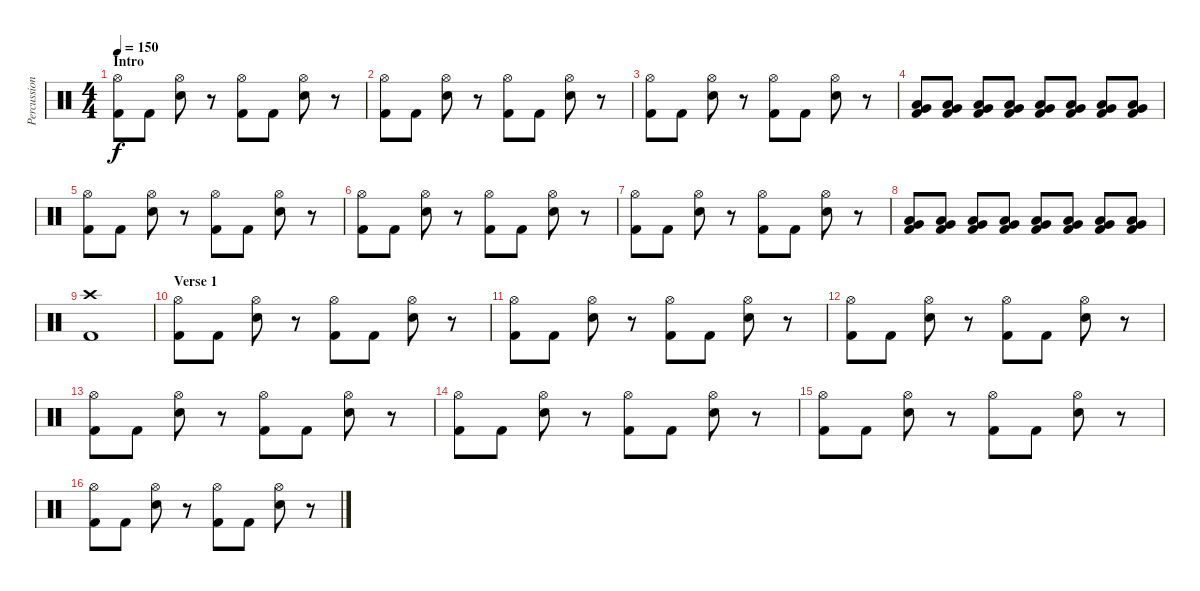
\track ("Percussion" "Percussion") {instrument percussion}
\staff {score}
\articulation defaults
\ts (4 4)
\section ("" "Intro")
\tempo 150
\clef neutral
\ks c
("Hi-Hat (open)" "Kick (hit) 2").8{dy f} "Kick (hit) 2".8 ("Hi-Hat (open)" "Electric Snare (hit)").8 r.8 ("Hi-Hat (open)" "Kick (hit) 2").8 "Kick (hit) 2".8 ("Hi-Hat (open)" "Electric Snare (hit)").8 r.8 |
("Hi-Hat (open)" "Kick (hit) 2").8 "Kick (hit) 2".8 ("Hi-Hat (open)" "Electric Snare (hit)").8 r.8 ("Hi-Hat (open)" "Kick (hit) 2").8 "Kick (hit) 2".8 ("Hi-Hat (open)" "Electric Snare (hit)").8 r.8 |
("Hi-Hat (open)" "Kick (hit) 2").8 "Kick (hit) 2".8 ("Hi-Hat (open)" "Electric Snare (hit)").8 r.8 ("Hi-Hat (open)" "Kick (hit) 2").8 "Kick (hit) 2".8 ("Hi-Hat (open)" "Electric Snare (hit)").8 r.8 |
("Low Tom (hit)" "Very Low Tom (hit)" "Kick (hit) 2").8 ("Low Tom (hit)" "Very Low Tom (hit)" "Kick (hit) 2").8 ("Low Tom (hit)" "Very Low Tom (hit)" "Kick (hit) 2").8 ("Low Tom (hit)" "Very Low Tom (hit)" "Kick (hit) 2").8 ("Low Tom (hit)" "Very Low Tom (hit)" "Kick (hit) 2").8 ("Low Tom (hit)" "Very Low Tom (hit)" "Kick (hit) 2").8 ("Low Tom (hit)" "Very Low Tom (hit)" "Kick (hit) 2").8 ("Low Tom (hit)" "Very Low Tom (hit)" "Kick (hit) 2").8 |
("Hi-Hat (open)" "Kick (hit) 2").8 "Kick (hit) 2".8 ("Hi-Hat (open)" "Electric Snare (hit)").8 r.8 ("Hi-Hat (open)" "Kick (hit) 2").8 "Kick (hit) 2".8 ("Hi-Hat (open)" "Electric Snare (hit)").8 r.8 |
("Hi-Hat (open)" "Kick (hit) 2").8 "Kick (hit) 2".8 ("Hi-Hat (open)" "Electric Snare (hit)").8 r.8 ("Hi-Hat (open)" "Kick (hit) 2").8 "Kick (hit) 2".8 ("Hi-Hat (open)" "Electric Snare (hit)").8 r.8 |
("Hi-Hat (open)" "Kick (hit) 2").8 "Kick (hit) 2".8 ("Hi-Hat (open)" "Electric Snare (hit)").8 r.8 ("Hi-Hat (open)" "Kick (hit) 2").8 "Kick (hit) 2".8 ("Hi-Hat (open)" "Electric Snare (hit)").8 r.8 |
("Low Tom (hit)" "Very Low Tom (hit)" "Kick (hit) 2").8 ("Low Tom (hit)" "Very Low Tom (hit)" "Kick (hit) 2").8 ("Low Tom (hit)" "Very Low Tom (hit)" "Kick (hit) 2").8 ("Low Tom (hit)" "Very Low Tom (hit)" "Kick (hit) 2").8 ("Low Tom (hit)" "Very Low Tom (hit)" "Kick (hit) 2").8 ("Low Tom (hit)" "Very Low Tom (hit)" "Kick (hit) 2").8 ("Low Tom (hit)" "Very Low Tom (hit)" "Kick (hit) 2").8 ("Low Tom (hit)" "Very Low Tom (hit)" "Kick (hit) 2").8 |
("Crash high (hit)" "Kick (hit) 2").1 |
\section ("" "Verse 1")
("Hi-Hat (open)" "Kick (hit) 2").8 "Kick (hit) 2".8 ("Hi-Hat (open)" "Electric Snare (hit)").8 r.8 ("Hi-Hat (open)" "Kick (hit) 2").8 "Kick (hit) 2".8 ("Hi-Hat (open)" "Electric Snare (hit)").8 r.8 |
("Hi-Hat (open)" "Kick (hit) 2").8 "Kick (hit) 2".8 ("Hi-Hat (open)" "Electric Snare (hit)").8 r.8 ("Hi-Hat (open)" "Kick (hit) 2").8 "Kick (hit) 2".8 ("Hi-Hat (open)" "Electric Snare (hit)").8 r.8 |
("Hi-Hat (open)" "Kick (hit) 2").8 "Kick (hit) 2".8 ("Hi-Hat (open)" "Electric Snare (hit)").8 r.8 ("Hi-Hat (open)" "Kick (hit) 2").8 "Kick (hit) 2".8 ("Hi-Hat (open)" "Electric Snare (hit)").8 r.8 |
("Hi-Hat (open)" "Kick (hit) 2").8 "Kick (hit) 2".8 ("Hi-Hat (open)" "Electric Snare (hit)").8 r.8 ("Hi-Hat (open)" "Kick (hit) 2").8 "Kick (hit) 2".8 ("Hi-Hat (open)" "Electric Snare (hit)").8 r.8 |
("Hi-Hat (open)" "Kick (hit) 2").8 "Kick (hit) 2".8 ("Hi-Hat (open)" "Electric Snare (hit)").8 r.8 ("Hi-Hat (open)" "Kick (hit) 2").8 "Kick (hit) 2".8 ("Hi-Hat (open)" "Electric Snare (hit)").8 r.8 |
("Hi-Hat (open)" "Kick (hit) 2").8 "Kick (hit) 2".8 ("Hi-Hat (open)" "Electric Snare (hit)").8 r.8 ("Hi-Hat (open)" "Kick (hit) 2").8 "Kick (hit) 2".8 ("Hi-Hat (open)" "Electric Snare (hit)").8 r.8 |
("Hi-Hat (open)" "Kick (hit) 2").8 "Kick (hit) 2".8 ("Hi-Hat (open)" "Electric Snare (hit)").8 r.8 ("Hi-Hat (open)" "Kick (hit) 2").8 "Kick (hit) 2".8 ("Hi-Hat (open)" "Electric Snare (hit)").8 r.8
